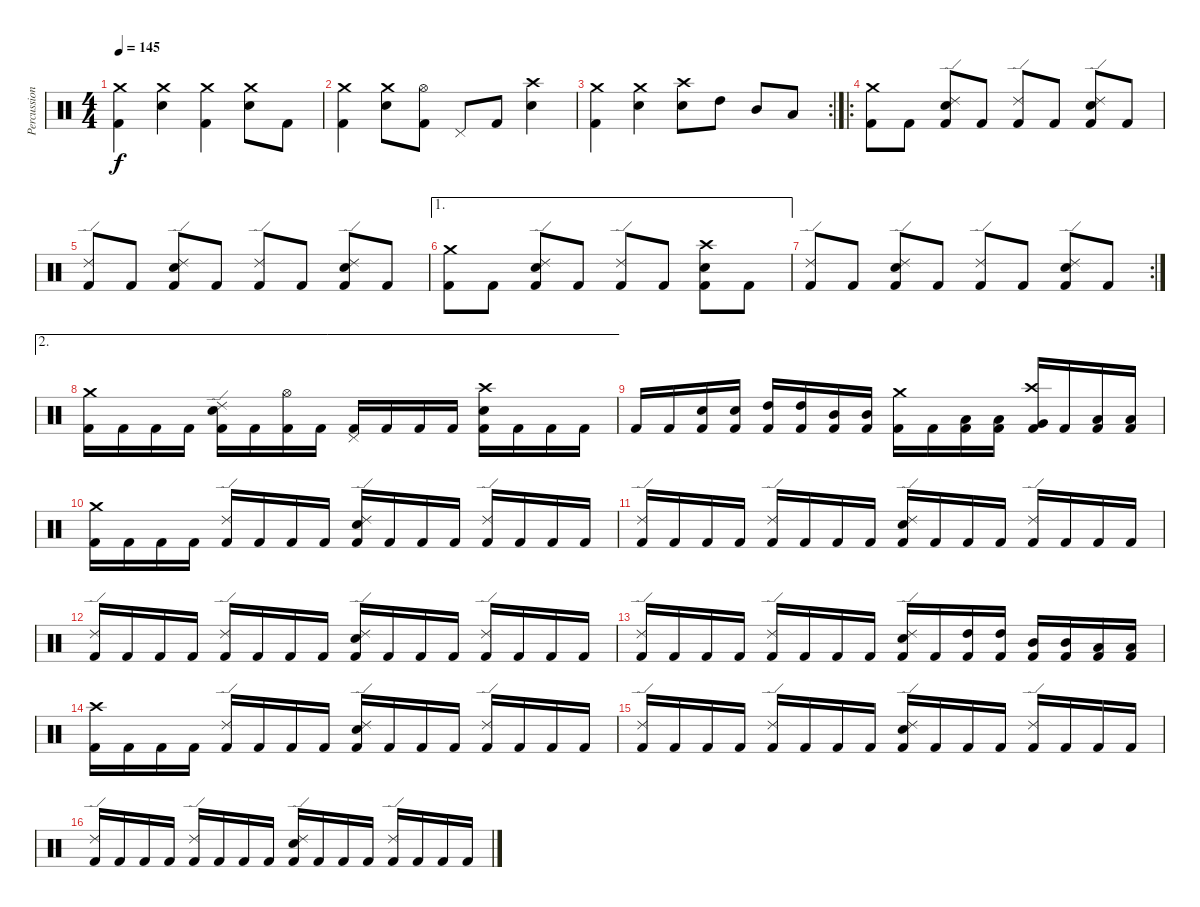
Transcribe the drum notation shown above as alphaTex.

\track ("Percussion" "Percussion") {instrument percussion}
\staff {score}
\articulation defaults
\ts (4 4)
\tempo 145
\clef neutral
\ks c
("Kick (hit) 2" "Crash medium (hit)").4{dy f} ("Electric Snare (hit)" "Crash medium (hit)").4 ("Kick (hit) 2" "Crash medium (hit)").4 ("Electric Snare (hit)" "Crash medium (hit)").8 "Kick (hit) 2".8 |
("Kick (hit) 2" "Crash medium (hit)").4 ("Electric Snare (hit)" "Crash medium (hit)").8 ("Kick (hit) 2" "Hi-Hat (open)").8 "Pedal Hi-Hat (hit)".8 "Kick (hit) 2".8 ("Electric Snare (hit)" "Crash high (hit)").4 |
\rc 2
("Kick (hit) 2" "Crash medium (hit)").4 ("Electric Snare (hit)" "Crash medium (hit)").4 ("Electric Snare (hit)" "Crash high (hit)").8 "High Tom (hit)".8 "Mid Tom (hit)".8 "Low Tom (hit)".8 |
\ro
("Kick (hit) 2" "Crash medium (hit)").8 "Kick (hit) 2".8 ("Kick (hit) 2" "Electric Snare (hit)" "Ride (edge) 2").8 "Kick (hit) 2".8 ("Kick (hit) 2" "Ride (edge) 2").8 "Kick (hit) 2".8 ("Kick (hit) 2" "Electric Snare (hit)" "Ride (edge) 2").8 "Kick (hit) 2".8 |
("Kick (hit) 2" "Ride (edge) 2").8 "Kick (hit) 2".8 ("Kick (hit) 2" "Electric Snare (hit)" "Ride (edge) 2").8 "Kick (hit) 2".8 ("Kick (hit) 2" "Ride (edge) 2").8 "Kick (hit) 2".8 ("Kick (hit) 2" "Electric Snare (hit)" "Ride (edge) 2").8 "Kick (hit) 2".8 |
\ae 1
("Kick (hit) 2" "Crash medium (hit)").8 "Kick (hit) 2".8 ("Kick (hit) 2" "Electric Snare (hit)" "Ride (edge) 2").8 "Kick (hit) 2".8 ("Kick (hit) 2" "Ride (edge) 2").8 "Kick (hit) 2".8 ("Kick (hit) 2" "Electric Snare (hit)" "Crash high (hit)").8 "Kick (hit) 2".8 |
\rc 2
("Kick (hit) 2" "Ride (edge) 2").8 "Kick (hit) 2".8 ("Kick (hit) 2" "Electric Snare (hit)" "Ride (edge) 2").8 "Kick (hit) 2".8 ("Kick (hit) 2" "Ride (edge) 2").8 "Kick (hit) 2".8 ("Kick (hit) 2" "Electric Snare (hit)" "Ride (edge) 2").8 "Kick (hit) 2".8 |
\ae 2
("Kick (hit) 2" "Crash medium (hit)").16 "Kick (hit) 2".16 "Kick (hit) 2".16 "Kick (hit) 2".16 ("Kick (hit) 2" "Electric Snare (hit)" "Ride (edge) 2").16 "Kick (hit) 2".16 ("Kick (hit) 2" "Hi-Hat (open)").16 "Kick (hit) 2".16 ("Kick (hit) 2" "Pedal Hi-Hat (hit)").16 "Kick (hit) 2".16 "Kick (hit) 2".16 "Kick (hit) 2".16 ("Kick (hit) 2" "Electric Snare (hit)" "Crash high (hit)").16 "Kick (hit) 2".16 "Kick (hit) 2".16 "Kick (hit) 2".16 |
"Kick (hit) 2".16 "Kick (hit) 2".16 ("Kick (hit) 2" "Electric Snare (hit)").16 ("Kick (hit) 2" "Electric Snare (hit)").16 ("Kick (hit) 2" "High Tom (hit)").16 ("Kick (hit) 2" "High Tom (hit)").16 ("Kick (hit) 2" "Mid Tom (hit)").16 ("Kick (hit) 2" "Mid Tom (hit)").16 ("Kick (hit) 2" "Crash medium (hit)").16 "Kick (hit) 2".16 ("Kick (hit) 2" "Low Tom (hit)").16 ("Kick (hit) 2" "Low Tom (hit)").16 ("Kick (hit) 2" "Very Low Tom (hit)" "Crash high (hit)").16 "Kick (hit) 2".16 ("Kick (hit) 2" "Low Floor Tom (hit)").16 ("Kick (hit) 2" "Low Floor Tom (hit)").16 |
("Kick (hit) 2" "Crash medium (hit)").16 "Kick (hit) 2".16 "Kick (hit) 2".16 "Kick (hit) 2".16 ("Kick (hit) 2" "Ride (edge) 2").16 "Kick (hit) 2".16 "Kick (hit) 2".16 "Kick (hit) 2".16 ("Kick (hit) 2" "Electric Snare (hit)" "Ride (edge) 2").16 "Kick (hit) 2".16 "Kick (hit) 2".16 "Kick (hit) 2".16 ("Kick (hit) 2" "Ride (edge) 2").16 "Kick (hit) 2".16 "Kick (hit) 2".16 "Kick (hit) 2".16 |
("Kick (hit) 2" "Ride (edge) 2").16 "Kick (hit) 2".16 "Kick (hit) 2".16 "Kick (hit) 2".16 ("Kick (hit) 2" "Ride (edge) 2").16 "Kick (hit) 2".16 "Kick (hit) 2".16 "Kick (hit) 2".16 ("Kick (hit) 2" "Electric Snare (hit)" "Ride (edge) 2").16 "Kick (hit) 2".16 "Kick (hit) 2".16 "Kick (hit) 2".16 ("Kick (hit) 2" "Ride (edge) 2").16 "Kick (hit) 2".16 "Kick (hit) 2".16 "Kick (hit) 2".16 |
("Kick (hit) 2" "Ride (edge) 2").16 "Kick (hit) 2".16 "Kick (hit) 2".16 "Kick (hit) 2".16 ("Kick (hit) 2" "Ride (edge) 2").16 "Kick (hit) 2".16 "Kick (hit) 2".16 "Kick (hit) 2".16 ("Kick (hit) 2" "Electric Snare (hit)" "Ride (edge) 2").16 "Kick (hit) 2".16 "Kick (hit) 2".16 "Kick (hit) 2".16 ("Kick (hit) 2" "Ride (edge) 2").16 "Kick (hit) 2".16 "Kick (hit) 2".16 "Kick (hit) 2".16 |
("Kick (hit) 2" "Ride (edge) 2").16 "Kick (hit) 2".16 "Kick (hit) 2".16 "Kick (hit) 2".16 ("Kick (hit) 2" "Ride (edge) 2").16 "Kick (hit) 2".16 "Kick (hit) 2".16 "Kick (hit) 2".16 ("Kick (hit) 2" "Electric Snare (hit)" "Ride (edge) 2").16 "Kick (hit) 2".16 ("Kick (hit) 2" "High Tom (hit)").16 ("Kick (hit) 2" "High Tom (hit)").16 ("Kick (hit) 2" "Mid Tom (hit)").16 ("Kick (hit) 2" "Mid Tom (hit)").16 ("Kick (hit) 2" "Low Tom (hit)").16 ("Kick (hit) 2" "Low Tom (hit)").16 |
("Kick (hit) 2" "Crash high (hit)").16 "Kick (hit) 2".16 "Kick (hit) 2".16 "Kick (hit) 2".16 ("Kick (hit) 2" "Ride (edge) 2").16 "Kick (hit) 2".16 "Kick (hit) 2".16 "Kick (hit) 2".16 ("Kick (hit) 2" "Electric Snare (hit)" "Ride (edge) 2").16 "Kick (hit) 2".16 "Kick (hit) 2".16 "Kick (hit) 2".16 ("Kick (hit) 2" "Ride (edge) 2").16 "Kick (hit) 2".16 "Kick (hit) 2".16 "Kick (hit) 2".16 |
("Kick (hit) 2" "Ride (edge) 2").16 "Kick (hit) 2".16 "Kick (hit) 2".16 "Kick (hit) 2".16 ("Kick (hit) 2" "Ride (edge) 2").16 "Kick (hit) 2".16 "Kick (hit) 2".16 "Kick (hit) 2".16 ("Kick (hit) 2" "Electric Snare (hit)" "Ride (edge) 2").16 "Kick (hit) 2".16 "Kick (hit) 2".16 "Kick (hit) 2".16 ("Kick (hit) 2" "Ride (edge) 2").16 "Kick (hit) 2".16 "Kick (hit) 2".16 "Kick (hit) 2".16 |
("Kick (hit) 2" "Ride (edge) 2").16 "Kick (hit) 2".16 "Kick (hit) 2".16 "Kick (hit) 2".16 ("Kick (hit) 2" "Ride (edge) 2").16 "Kick (hit) 2".16 "Kick (hit) 2".16 "Kick (hit) 2".16 ("Kick (hit) 2" "Electric Snare (hit)" "Ride (edge) 2").16 "Kick (hit) 2".16 "Kick (hit) 2".16 "Kick (hit) 2".16 ("Kick (hit) 2" "Ride (edge) 2").16 "Kick (hit) 2".16 "Kick (hit) 2".16 "Kick (hit) 2".16
